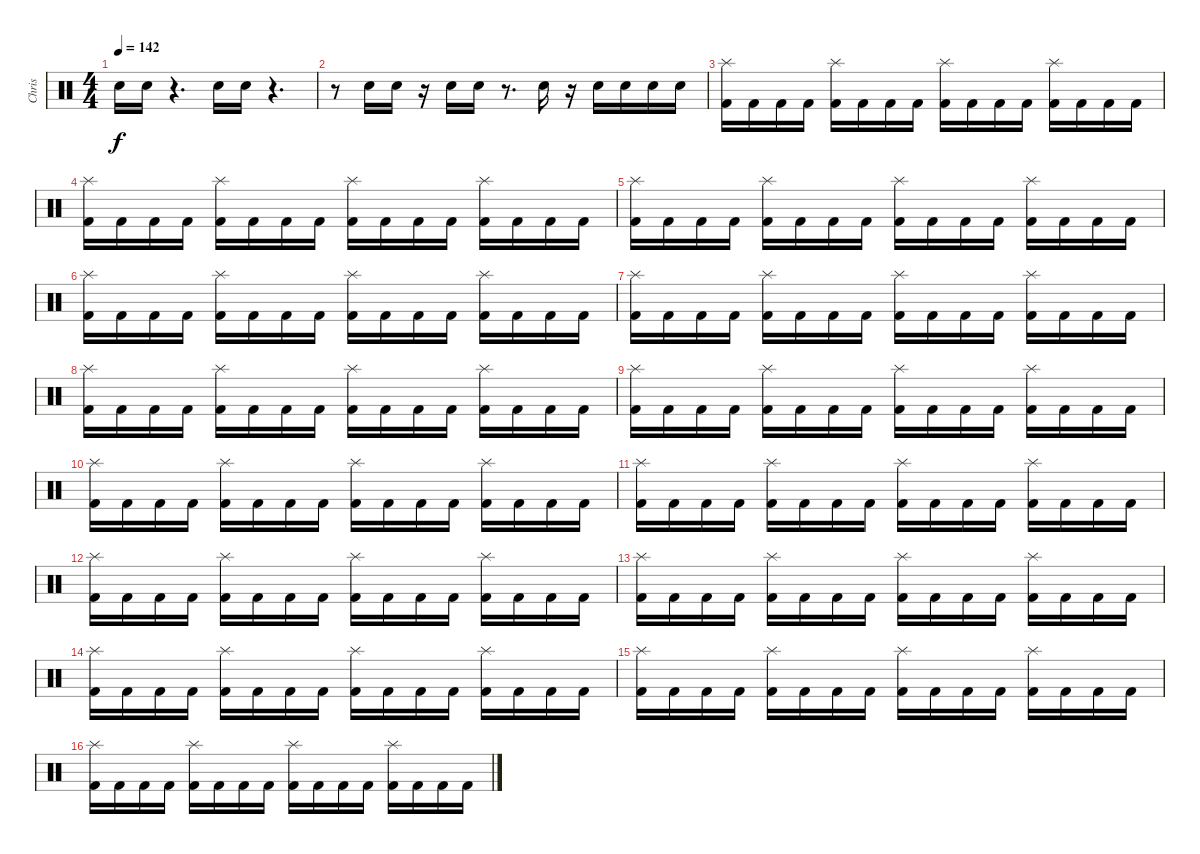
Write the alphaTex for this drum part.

\track ("Chris" "Chris") {instrument percussion}
\staff {score}
\articulation defaults
\ts (4 4)
\tempo 142
\clef neutral
\ks c "Snare (hit) 2".16{dy f} "Snare (hit) 2".16
r.4{d} "Snare (hit) 2".16 "Snare (hit) 2".16 r.4{d} |
r.8 "Snare (hit) 2".16 "Snare (hit) 2".16 r.16 "Snare (hit) 2".16 "Snare (hit) 2".16 r.8{d} "Snare (hit) 2".16 r.16 "Snare (hit) 2".16 "Snare (hit) 2".16 "Snare (hit) 2".16 "Snare (hit) 2".16 |
("Splash (hit)" "Kick (hit) 2").16 "Kick (hit) 2".16 "Kick (hit) 2".16 "Kick (hit) 2".16 ("Splash (hit)" "Kick (hit) 2").16 "Kick (hit) 2".16 "Kick (hit) 2".16 "Kick (hit) 2".16 ("Splash (hit)" "Kick (hit) 2").16 "Kick (hit) 2".16 "Kick (hit) 2".16 "Kick (hit) 2".16 ("Splash (hit)" "Kick (hit) 2").16 "Kick (hit) 2".16 "Kick (hit) 2".16 "Kick (hit) 2".16 |
("Splash (hit)" "Kick (hit) 2").16 "Kick (hit) 2".16 "Kick (hit) 2".16 "Kick (hit) 2".16 ("Splash (hit)" "Kick (hit) 2").16 "Kick (hit) 2".16 "Kick (hit) 2".16 "Kick (hit) 2".16 ("Splash (hit)" "Kick (hit) 2").16 "Kick (hit) 2".16 "Kick (hit) 2".16 "Kick (hit) 2".16 ("Splash (hit)" "Kick (hit) 2").16 "Kick (hit) 2".16 "Kick (hit) 2".16 "Kick (hit) 2".16 |
("Splash (hit)" "Kick (hit) 2").16 "Kick (hit) 2".16 "Kick (hit) 2".16 "Kick (hit) 2".16 ("Splash (hit)" "Kick (hit) 2").16 "Kick (hit) 2".16 "Kick (hit) 2".16 "Kick (hit) 2".16 ("Splash (hit)" "Kick (hit) 2").16 "Kick (hit) 2".16 "Kick (hit) 2".16 "Kick (hit) 2".16 ("Splash (hit)" "Kick (hit) 2").16 "Kick (hit) 2".16 "Kick (hit) 2".16 "Kick (hit) 2".16 |
("Splash (hit)" "Kick (hit) 2").16 "Kick (hit) 2".16 "Kick (hit) 2".16 "Kick (hit) 2".16 ("Splash (hit)" "Kick (hit) 2").16 "Kick (hit) 2".16 "Kick (hit) 2".16 "Kick (hit) 2".16 ("Splash (hit)" "Kick (hit) 2").16 "Kick (hit) 2".16 "Kick (hit) 2".16 "Kick (hit) 2".16 ("Splash (hit)" "Kick (hit) 2").16 "Kick (hit) 2".16 "Kick (hit) 2".16 "Kick (hit) 2".16 |
("Splash (hit)" "Kick (hit) 2").16 "Kick (hit) 2".16 "Kick (hit) 2".16 "Kick (hit) 2".16 ("Splash (hit)" "Kick (hit) 2").16 "Kick (hit) 2".16 "Kick (hit) 2".16 "Kick (hit) 2".16 ("Splash (hit)" "Kick (hit) 2").16 "Kick (hit) 2".16 "Kick (hit) 2".16 "Kick (hit) 2".16 ("Splash (hit)" "Kick (hit) 2").16 "Kick (hit) 2".16 "Kick (hit) 2".16 "Kick (hit) 2".16 |
("Splash (hit)" "Kick (hit) 2").16 "Kick (hit) 2".16 "Kick (hit) 2".16 "Kick (hit) 2".16 ("Splash (hit)" "Kick (hit) 2").16 "Kick (hit) 2".16 "Kick (hit) 2".16 "Kick (hit) 2".16 ("Splash (hit)" "Kick (hit) 2").16 "Kick (hit) 2".16 "Kick (hit) 2".16 "Kick (hit) 2".16 ("Splash (hit)" "Kick (hit) 2").16 "Kick (hit) 2".16 "Kick (hit) 2".16 "Kick (hit) 2".16 |
("Splash (hit)" "Kick (hit) 2").16 "Kick (hit) 2".16 "Kick (hit) 2".16 "Kick (hit) 2".16 ("Splash (hit)" "Kick (hit) 2").16 "Kick (hit) 2".16 "Kick (hit) 2".16 "Kick (hit) 2".16 ("Splash (hit)" "Kick (hit) 2").16 "Kick (hit) 2".16 "Kick (hit) 2".16 "Kick (hit) 2".16 ("Splash (hit)" "Kick (hit) 2").16 "Kick (hit) 2".16 "Kick (hit) 2".16 "Kick (hit) 2".16 |
("Splash (hit)" "Kick (hit) 2").16 "Kick (hit) 2".16 "Kick (hit) 2".16 "Kick (hit) 2".16 ("Splash (hit)" "Kick (hit) 2").16 "Kick (hit) 2".16 "Kick (hit) 2".16 "Kick (hit) 2".16 ("Splash (hit)" "Kick (hit) 2").16 "Kick (hit) 2".16 "Kick (hit) 2".16 "Kick (hit) 2".16 ("Splash (hit)" "Kick (hit) 2").16 "Kick (hit) 2".16 "Kick (hit) 2".16 "Kick (hit) 2".16 |
("Splash (hit)" "Kick (hit) 2").16 "Kick (hit) 2".16 "Kick (hit) 2".16 "Kick (hit) 2".16 ("Splash (hit)" "Kick (hit) 2").16 "Kick (hit) 2".16 "Kick (hit) 2".16 "Kick (hit) 2".16 ("Splash (hit)" "Kick (hit) 2").16 "Kick (hit) 2".16 "Kick (hit) 2".16 "Kick (hit) 2".16 ("Splash (hit)" "Kick (hit) 2").16 "Kick (hit) 2".16 "Kick (hit) 2".16 "Kick (hit) 2".16 |
("Splash (hit)" "Kick (hit) 2").16 "Kick (hit) 2".16 "Kick (hit) 2".16 "Kick (hit) 2".16 ("Splash (hit)" "Kick (hit) 2").16 "Kick (hit) 2".16 "Kick (hit) 2".16 "Kick (hit) 2".16 ("Splash (hit)" "Kick (hit) 2").16 "Kick (hit) 2".16 "Kick (hit) 2".16 "Kick (hit) 2".16 ("Splash (hit)" "Kick (hit) 2").16 "Kick (hit) 2".16 "Kick (hit) 2".16 "Kick (hit) 2".16 |
("Splash (hit)" "Kick (hit) 2").16 "Kick (hit) 2".16 "Kick (hit) 2".16 "Kick (hit) 2".16 ("Splash (hit)" "Kick (hit) 2").16 "Kick (hit) 2".16 "Kick (hit) 2".16 "Kick (hit) 2".16 ("Splash (hit)" "Kick (hit) 2").16 "Kick (hit) 2".16 "Kick (hit) 2".16 "Kick (hit) 2".16 ("Splash (hit)" "Kick (hit) 2").16 "Kick (hit) 2".16 "Kick (hit) 2".16 "Kick (hit) 2".16 |
("Splash (hit)" "Kick (hit) 2").16 "Kick (hit) 2".16 "Kick (hit) 2".16 "Kick (hit) 2".16 ("Splash (hit)" "Kick (hit) 2").16 "Kick (hit) 2".16 "Kick (hit) 2".16 "Kick (hit) 2".16 ("Splash (hit)" "Kick (hit) 2").16 "Kick (hit) 2".16 "Kick (hit) 2".16 "Kick (hit) 2".16 ("Splash (hit)" "Kick (hit) 2").16 "Kick (hit) 2".16 "Kick (hit) 2".16 "Kick (hit) 2".16 |
("Splash (hit)" "Kick (hit) 2").16 "Kick (hit) 2".16 "Kick (hit) 2".16 "Kick (hit) 2".16 ("Splash (hit)" "Kick (hit) 2").16 "Kick (hit) 2".16 "Kick (hit) 2".16 "Kick (hit) 2".16 ("Splash (hit)" "Kick (hit) 2").16 "Kick (hit) 2".16 "Kick (hit) 2".16 "Kick (hit) 2".16 ("Splash (hit)" "Kick (hit) 2").16 "Kick (hit) 2".16 "Kick (hit) 2".16 "Kick (hit) 2".16 |
("Splash (hit)" "Kick (hit) 2").16 "Kick (hit) 2".16 "Kick (hit) 2".16 "Kick (hit) 2".16 ("Splash (hit)" "Kick (hit) 2").16 "Kick (hit) 2".16 "Kick (hit) 2".16 "Kick (hit) 2".16 ("Splash (hit)" "Kick (hit) 2").16 "Kick (hit) 2".16 "Kick (hit) 2".16 "Kick (hit) 2".16 ("Splash (hit)" "Kick (hit) 2").16 "Kick (hit) 2".16 "Kick (hit) 2".16 "Kick (hit) 2".16
